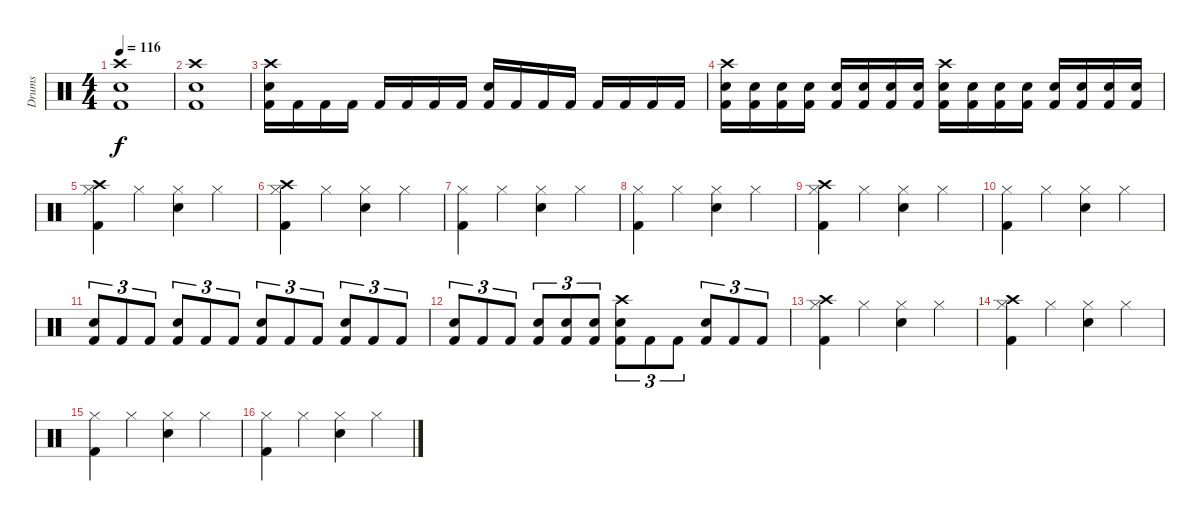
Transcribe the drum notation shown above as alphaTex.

\track ("Drums" "Drums") {instrument percussion}
\staff {score}
\articulation defaults
\ts (4 4)
\tempo 116
\clef neutral
\ks c
("Crash high (hit)" "Snare (hit) 2" "Kick (hit) 2").1{dy f} |
("Crash high (hit)" "Snare (hit) 2" "Kick (hit) 2").1 |
("Crash high (hit)" "Snare (hit) 2" "Kick (hit) 2").16 "Kick (hit) 2".16 "Kick (hit) 2".16 "Kick (hit) 2".16 "Kick (hit) 2".16 "Kick (hit) 2".16 "Kick (hit) 2".16 "Kick (hit) 2".16 ("Electric Snare (hit)" "Kick (hit) 2").16 "Kick (hit) 2".16 "Kick (hit) 2".16 "Kick (hit) 2".16 "Kick (hit) 2".16 "Kick (hit) 2".16 "Kick (hit) 2".16 "Kick (hit) 2".16 |
("Crash high (hit)" "Snare (hit) 2" "Kick (hit) 2").16 ("Snare (hit) 2" "Kick (hit) 2").16 ("Snare (hit) 2" "Kick (hit) 2").16 ("Snare (hit) 2" "Kick (hit) 2").16 ("Snare (hit) 2" "Kick (hit) 2").16 ("Snare (hit) 2" "Kick (hit) 2").16 ("Snare (hit) 2" "Kick (hit) 2").16 ("Snare (hit) 2" "Kick (hit) 2").16 ("Crash high (hit)" "Snare (hit) 2" "Kick (hit) 2").16 ("Snare (hit) 2" "Kick (hit) 2").16 ("Snare (hit) 2" "Kick (hit) 2").16 ("Snare (hit) 2" "Kick (hit) 2").16 ("Snare (hit) 2" "Kick (hit) 2").16 ("Snare (hit) 2" "Kick (hit) 2").16 ("Snare (hit) 2" "Kick (hit) 2").16 ("Snare (hit) 2" "Kick (hit) 2").16 |
("Crash high (hit)" "Hi-Hat (closed)" "Kick (hit) 2").4 "Hi-Hat (closed)".4 ("Hi-Hat (closed)" "Snare (hit) 2").4 "Hi-Hat (closed)".4 |
("Crash high (hit)" "Hi-Hat (closed)" "Kick (hit) 2").4 "Hi-Hat (closed)".4 ("Hi-Hat (closed)" "Snare (hit) 2").4 "Hi-Hat (closed)".4 |
("Hi-Hat (closed)" "Kick (hit) 2").4 "Hi-Hat (closed)".4 ("Hi-Hat (closed)" "Snare (hit) 2").4 "Hi-Hat (closed)".4 |
("Hi-Hat (closed)" "Kick (hit) 2").4 "Hi-Hat (closed)".4 ("Hi-Hat (closed)" "Snare (hit) 2").4 "Hi-Hat (closed)".4 |
("Crash high (hit)" "Hi-Hat (closed)" "Kick (hit) 2").4 "Hi-Hat (closed)".4 ("Hi-Hat (closed)" "Snare (hit) 2").4 "Hi-Hat (closed)".4 |
("Hi-Hat (closed)" "Kick (hit) 2").4 "Hi-Hat (closed)".4 ("Hi-Hat (closed)" "Snare (hit) 2").4 "Hi-Hat (closed)".4 |
("Electric Snare (hit)" "Kick (hit) 2").8{tu (3 2)} "Kick (hit) 2".8{tu (3 2)} "Kick (hit) 2".8{tu (3 2)} ("Electric Snare (hit)" "Kick (hit) 2").8{tu (3 2)} "Kick (hit) 2".8{tu (3 2)} "Kick (hit) 2".8{tu (3 2)} ("Electric Snare (hit)" "Kick (hit) 2").8{tu (3 2)} "Kick (hit) 2".8{tu (3 2)} "Kick (hit) 2".8{tu (3 2)} ("Electric Snare (hit)" "Kick (hit) 2").8{tu (3 2)} "Kick (hit) 2".8{tu (3 2)} "Kick (hit) 2".8{tu (3 2)} |
("Electric Snare (hit)" "Kick (hit) 2").8{tu (3 2)} "Kick (hit) 2".8{tu (3 2)} "Kick (hit) 2".8{tu (3 2)} ("Electric Snare (hit)" "Kick (hit) 2").8{tu (3 2)} ("Electric Snare (hit)" "Kick (hit) 2").8{tu (3 2)} ("Electric Snare (hit)" "Kick (hit) 2").8{tu (3 2)} ("Crash high (hit)" "Electric Snare (hit)" "Kick (hit) 2").8{tu (3 2)} "Kick (hit) 2".8{tu (3 2)} "Kick (hit) 2".8{tu (3 2)} ("Electric Snare (hit)" "Kick (hit) 2").8{tu (3 2)} "Kick (hit) 2".8{tu (3 2)} "Kick (hit) 2".8{tu (3 2)} |
("Crash high (hit)" "Hi-Hat (closed)" "Kick (hit) 2").4 "Hi-Hat (closed)".4 ("Hi-Hat (closed)" "Snare (hit) 2").4 "Hi-Hat (closed)".4 |
("Crash high (hit)" "Hi-Hat (closed)" "Kick (hit) 2").4 "Hi-Hat (closed)".4 ("Hi-Hat (closed)" "Snare (hit) 2").4 "Hi-Hat (closed)".4 |
("Hi-Hat (closed)" "Kick (hit) 2").4 "Hi-Hat (closed)".4 ("Hi-Hat (closed)" "Snare (hit) 2").4 "Hi-Hat (closed)".4 |
("Hi-Hat (closed)" "Kick (hit) 2").4 "Hi-Hat (closed)".4 ("Hi-Hat (closed)" "Snare (hit) 2").4 "Hi-Hat (closed)".4
